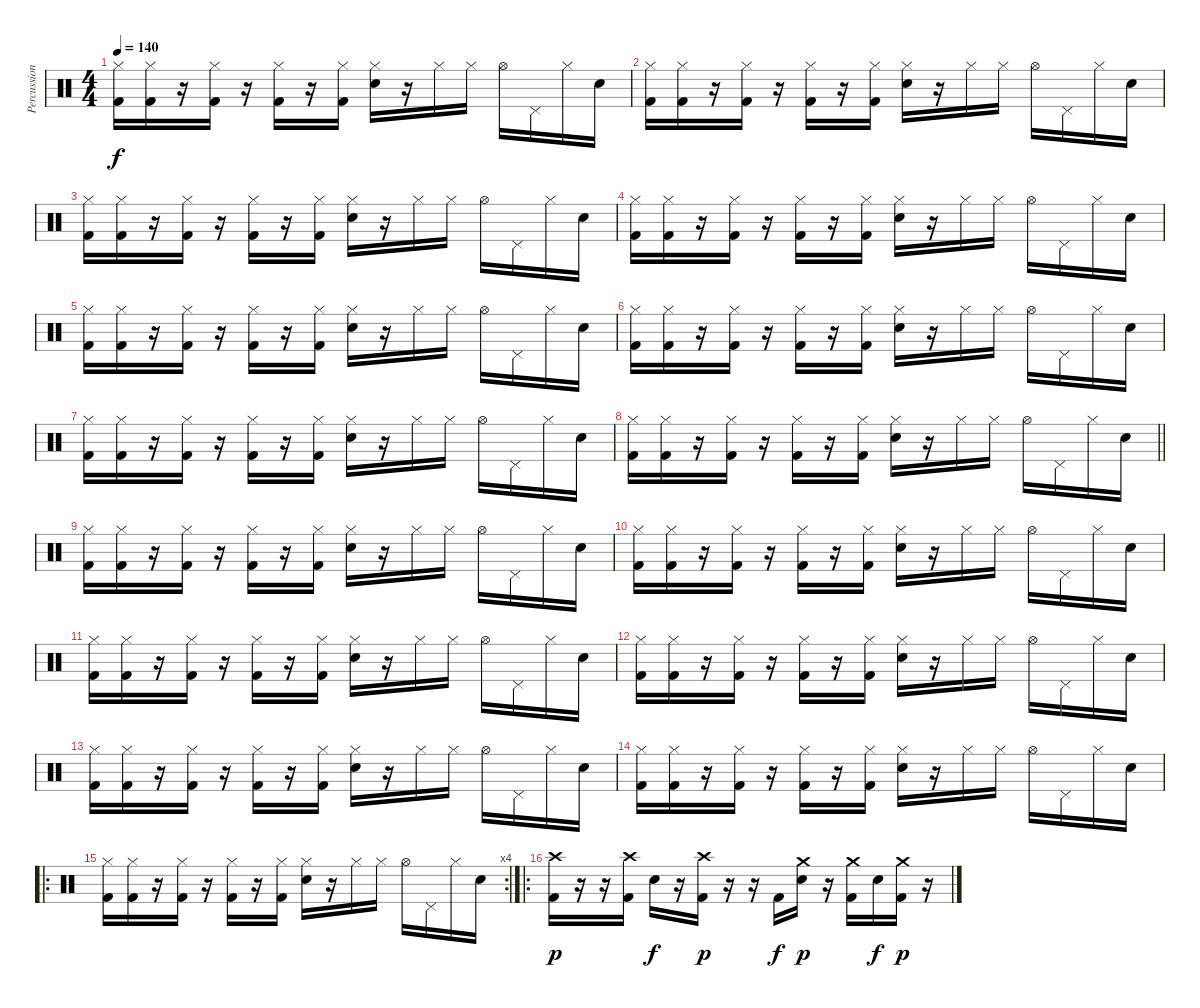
\track ("Percussion" "Percussion") {instrument percussion}
\staff {score}
\articulation defaults
\ts (4 4)
\tempo 140
\clef neutral
\ks c
("Hi-Hat (closed)" "Kick (hit) 2").16{dy f} ("Hi-Hat (closed)" "Kick (hit) 2").16 r.16 ("Hi-Hat (closed)" "Kick (hit) 2").16 r.16 ("Hi-Hat (closed)" "Kick (hit) 2").16 r.16 ("Hi-Hat (closed)" "Kick (hit) 2").16 ("Hi-Hat (closed)" "Electric Snare (hit)").16 r.16 "Hi-Hat (closed)".16 "Hi-Hat (closed)".16 "Hi-Hat (open)".16 "Pedal Hi-Hat (hit)".16 "Hi-Hat (closed)".16 "Electric Snare (hit)".16 |
("Hi-Hat (closed)" "Kick (hit) 2").16 ("Hi-Hat (closed)" "Kick (hit) 2").16 r.16 ("Hi-Hat (closed)" "Kick (hit) 2").16 r.16 ("Hi-Hat (closed)" "Kick (hit) 2").16 r.16 ("Hi-Hat (closed)" "Kick (hit) 2").16 ("Hi-Hat (closed)" "Electric Snare (hit)").16 r.16 "Hi-Hat (closed)".16 "Hi-Hat (closed)".16 "Hi-Hat (open)".16 "Pedal Hi-Hat (hit)".16 "Hi-Hat (closed)".16 "Electric Snare (hit)".16 |
("Hi-Hat (closed)" "Kick (hit) 2").16 ("Hi-Hat (closed)" "Kick (hit) 2").16 r.16 ("Hi-Hat (closed)" "Kick (hit) 2").16 r.16 ("Hi-Hat (closed)" "Kick (hit) 2").16 r.16 ("Hi-Hat (closed)" "Kick (hit) 2").16 ("Hi-Hat (closed)" "Electric Snare (hit)").16 r.16 "Hi-Hat (closed)".16 "Hi-Hat (closed)".16 "Hi-Hat (open)".16 "Pedal Hi-Hat (hit)".16 "Hi-Hat (closed)".16 "Electric Snare (hit)".16 |
("Hi-Hat (closed)" "Kick (hit) 2").16 ("Hi-Hat (closed)" "Kick (hit) 2").16 r.16 ("Hi-Hat (closed)" "Kick (hit) 2").16 r.16 ("Hi-Hat (closed)" "Kick (hit) 2").16 r.16 ("Hi-Hat (closed)" "Kick (hit) 2").16 ("Hi-Hat (closed)" "Electric Snare (hit)").16 r.16 "Hi-Hat (closed)".16 "Hi-Hat (closed)".16 "Hi-Hat (open)".16 "Pedal Hi-Hat (hit)".16 "Hi-Hat (closed)".16 "Electric Snare (hit)".16 |
("Hi-Hat (closed)" "Kick (hit) 2").16 ("Hi-Hat (closed)" "Kick (hit) 2").16 r.16 ("Hi-Hat (closed)" "Kick (hit) 2").16 r.16 ("Hi-Hat (closed)" "Kick (hit) 2").16 r.16 ("Hi-Hat (closed)" "Kick (hit) 2").16 ("Hi-Hat (closed)" "Electric Snare (hit)").16 r.16 "Hi-Hat (closed)".16 "Hi-Hat (closed)".16 "Hi-Hat (open)".16 "Pedal Hi-Hat (hit)".16 "Hi-Hat (closed)".16 "Electric Snare (hit)".16 |
("Hi-Hat (closed)" "Kick (hit) 2").16 ("Hi-Hat (closed)" "Kick (hit) 2").16 r.16 ("Hi-Hat (closed)" "Kick (hit) 2").16 r.16 ("Hi-Hat (closed)" "Kick (hit) 2").16 r.16 ("Hi-Hat (closed)" "Kick (hit) 2").16 ("Hi-Hat (closed)" "Electric Snare (hit)").16 r.16 "Hi-Hat (closed)".16 "Hi-Hat (closed)".16 "Hi-Hat (open)".16 "Pedal Hi-Hat (hit)".16 "Hi-Hat (closed)".16 "Electric Snare (hit)".16 |
("Hi-Hat (closed)" "Kick (hit) 2").16 ("Hi-Hat (closed)" "Kick (hit) 2").16 r.16 ("Hi-Hat (closed)" "Kick (hit) 2").16 r.16 ("Hi-Hat (closed)" "Kick (hit) 2").16 r.16 ("Hi-Hat (closed)" "Kick (hit) 2").16 ("Hi-Hat (closed)" "Electric Snare (hit)").16 r.16 "Hi-Hat (closed)".16 "Hi-Hat (closed)".16 "Hi-Hat (open)".16 "Pedal Hi-Hat (hit)".16 "Hi-Hat (closed)".16 "Electric Snare (hit)".16 |
\barLineRight lightlight
("Hi-Hat (closed)" "Kick (hit) 2").16 ("Hi-Hat (closed)" "Kick (hit) 2").16 r.16 ("Hi-Hat (closed)" "Kick (hit) 2").16 r.16 ("Hi-Hat (closed)" "Kick (hit) 2").16 r.16 ("Hi-Hat (closed)" "Kick (hit) 2").16 ("Hi-Hat (closed)" "Electric Snare (hit)").16 r.16 "Hi-Hat (closed)".16 "Hi-Hat (closed)".16 "Hi-Hat (open)".16 "Pedal Hi-Hat (hit)".16 "Hi-Hat (closed)".16 "Electric Snare (hit)".16 |
("Hi-Hat (closed)" "Kick (hit) 2").16 ("Hi-Hat (closed)" "Kick (hit) 2").16 r.16 ("Hi-Hat (closed)" "Kick (hit) 2").16 r.16 ("Hi-Hat (closed)" "Kick (hit) 2").16 r.16 ("Hi-Hat (closed)" "Kick (hit) 2").16 ("Hi-Hat (closed)" "Electric Snare (hit)").16 r.16 "Hi-Hat (closed)".16 "Hi-Hat (closed)".16 "Hi-Hat (open)".16 "Pedal Hi-Hat (hit)".16 "Hi-Hat (closed)".16 "Electric Snare (hit)".16 |
("Hi-Hat (closed)" "Kick (hit) 2").16 ("Hi-Hat (closed)" "Kick (hit) 2").16 r.16 ("Hi-Hat (closed)" "Kick (hit) 2").16 r.16 ("Hi-Hat (closed)" "Kick (hit) 2").16 r.16 ("Hi-Hat (closed)" "Kick (hit) 2").16 ("Hi-Hat (closed)" "Electric Snare (hit)").16 r.16 "Hi-Hat (closed)".16 "Hi-Hat (closed)".16 "Hi-Hat (open)".16 "Pedal Hi-Hat (hit)".16 "Hi-Hat (closed)".16 "Electric Snare (hit)".16 |
("Hi-Hat (closed)" "Kick (hit) 2").16 ("Hi-Hat (closed)" "Kick (hit) 2").16 r.16 ("Hi-Hat (closed)" "Kick (hit) 2").16 r.16 ("Hi-Hat (closed)" "Kick (hit) 2").16 r.16 ("Hi-Hat (closed)" "Kick (hit) 2").16 ("Hi-Hat (closed)" "Electric Snare (hit)").16 r.16 "Hi-Hat (closed)".16 "Hi-Hat (closed)".16 "Hi-Hat (open)".16 "Pedal Hi-Hat (hit)".16 "Hi-Hat (closed)".16 "Electric Snare (hit)".16 |
("Hi-Hat (closed)" "Kick (hit) 2").16 ("Hi-Hat (closed)" "Kick (hit) 2").16 r.16 ("Hi-Hat (closed)" "Kick (hit) 2").16 r.16 ("Hi-Hat (closed)" "Kick (hit) 2").16 r.16 ("Hi-Hat (closed)" "Kick (hit) 2").16 ("Hi-Hat (closed)" "Electric Snare (hit)").16 r.16 "Hi-Hat (closed)".16 "Hi-Hat (closed)".16 "Hi-Hat (open)".16 "Pedal Hi-Hat (hit)".16 "Hi-Hat (closed)".16 "Electric Snare (hit)".16 |
("Hi-Hat (closed)" "Kick (hit) 2").16 ("Hi-Hat (closed)" "Kick (hit) 2").16 r.16 ("Hi-Hat (closed)" "Kick (hit) 2").16 r.16 ("Hi-Hat (closed)" "Kick (hit) 2").16 r.16 ("Hi-Hat (closed)" "Kick (hit) 2").16 ("Hi-Hat (closed)" "Electric Snare (hit)").16 r.16 "Hi-Hat (closed)".16 "Hi-Hat (closed)".16 "Hi-Hat (open)".16 "Pedal Hi-Hat (hit)".16 "Hi-Hat (closed)".16 "Electric Snare (hit)".16 |
("Hi-Hat (closed)" "Kick (hit) 2").16 ("Hi-Hat (closed)" "Kick (hit) 2").16 r.16 ("Hi-Hat (closed)" "Kick (hit) 2").16 r.16 ("Hi-Hat (closed)" "Kick (hit) 2").16 r.16 ("Hi-Hat (closed)" "Kick (hit) 2").16 ("Hi-Hat (closed)" "Electric Snare (hit)").16 r.16 "Hi-Hat (closed)".16 "Hi-Hat (closed)".16 "Hi-Hat (open)".16 "Pedal Hi-Hat (hit)".16 "Hi-Hat (closed)".16 "Electric Snare (hit)".16 |
\ro
\rc 4
("Hi-Hat (closed)" "Kick (hit) 2").16 ("Hi-Hat (closed)" "Kick (hit) 2").16 r.16 ("Hi-Hat (closed)" "Kick (hit) 2").16 r.16 ("Hi-Hat (closed)" "Kick (hit) 2").16 r.16 ("Hi-Hat (closed)" "Kick (hit) 2").16 ("Hi-Hat (closed)" "Electric Snare (hit)").16 r.16 "Hi-Hat (closed)".16 "Hi-Hat (closed)".16 "Hi-Hat (open)".16 "Pedal Hi-Hat (hit)".16 "Hi-Hat (closed)".16 "Electric Snare (hit)".16 |
\ro
("Crash high (hit)" "Kick (hit) 2").16{dy p} r.16 r.16 ("Crash high (hit)" "Kick (hit) 2").16 "Electric Snare (hit)".16{dy f} r.16 ("Crash high (hit)" "Kick (hit) 2").16{dy p} r.16 r.16 "Kick (hit) 2".16{dy f} ("Crash medium (hit)" "Electric Snare (hit)").16{dy p} r.16 ("Crash medium (hit)" "Kick (hit) 2").16 "Electric Snare (hit)".16{dy f} ("Crash medium (hit)" "Kick (hit) 2").16{dy p} r.16
